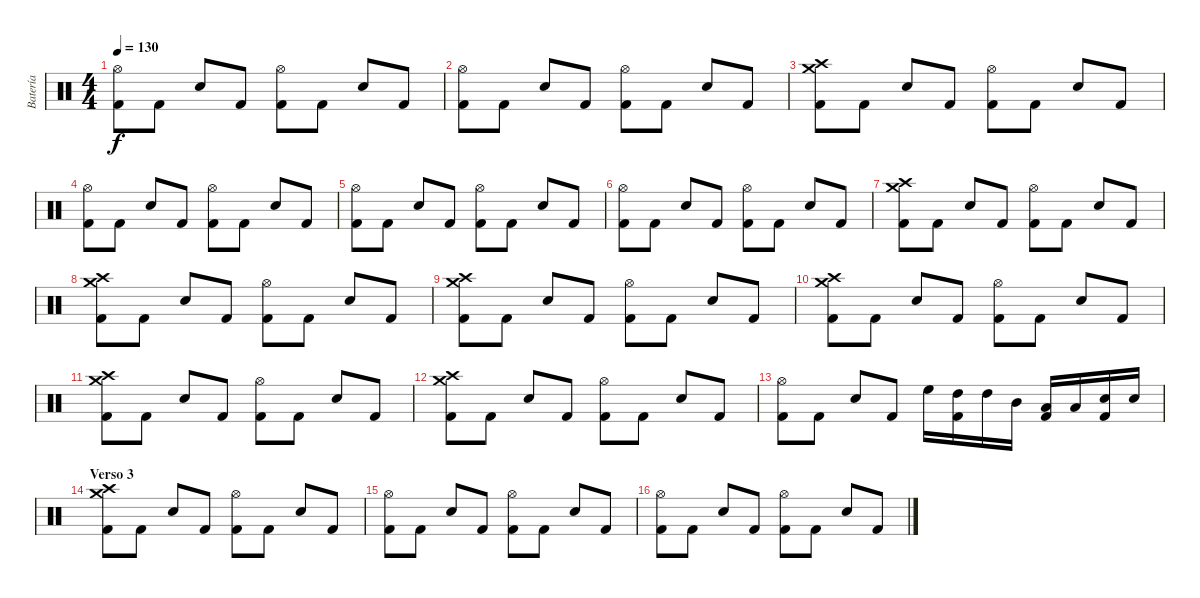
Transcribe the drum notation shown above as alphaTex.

\track ("Batería" "Batería") {instrument percussion}
\staff {score}
\articulation defaults
\ts (4 4)
\tempo 130
\clef neutral
\ks c
("Hi-Hat (open)" "Kick (hit) 2").8{dy f} "Kick (hit) 2".8 "Snare (hit) 2".8 "Kick (hit) 2".8 ("Hi-Hat (open)" "Kick (hit) 2").8 "Kick (hit) 2".8 "Snare (hit) 2".8 "Kick (hit) 2".8 |
("Hi-Hat (open)" "Kick (hit) 2").8 "Kick (hit) 2".8 "Snare (hit) 2".8 "Kick (hit) 2".8 ("Hi-Hat (open)" "Kick (hit) 2").8 "Kick (hit) 2".8 "Snare (hit) 2".8 "Kick (hit) 2".8 |
("Crash medium (hit)" "Crash high (hit)" "Kick (hit) 2").8 "Kick (hit) 2".8 "Snare (hit) 2".8 "Kick (hit) 2".8 ("Hi-Hat (open)" "Kick (hit) 2").8 "Kick (hit) 2".8 "Snare (hit) 2".8 "Kick (hit) 2".8 |
("Hi-Hat (open)" "Kick (hit) 2").8 "Kick (hit) 2".8 "Snare (hit) 2".8 "Kick (hit) 2".8 ("Hi-Hat (open)" "Kick (hit) 2").8 "Kick (hit) 2".8 "Snare (hit) 2".8 "Kick (hit) 2".8 |
("Hi-Hat (open)" "Kick (hit) 2").8 "Kick (hit) 2".8 "Snare (hit) 2".8 "Kick (hit) 2".8 ("Hi-Hat (open)" "Kick (hit) 2").8 "Kick (hit) 2".8 "Snare (hit) 2".8 "Kick (hit) 2".8 |
("Hi-Hat (open)" "Kick (hit) 2").8 "Kick (hit) 2".8 "Snare (hit) 2".8 "Kick (hit) 2".8 ("Hi-Hat (open)" "Kick (hit) 2").8 "Kick (hit) 2".8 "Snare (hit) 2".8 "Kick (hit) 2".8 |
("Crash medium (hit)" "Crash high (hit)" "Kick (hit) 2").8 "Kick (hit) 2".8 "Snare (hit) 2".8 "Kick (hit) 2".8 ("Hi-Hat (open)" "Kick (hit) 2").8 "Kick (hit) 2".8 "Snare (hit) 2".8 "Kick (hit) 2".8 |
("Crash medium (hit)" "Crash high (hit)" "Kick (hit) 2").8 "Kick (hit) 2".8 "Snare (hit) 2".8 "Kick (hit) 2".8 ("Hi-Hat (open)" "Kick (hit) 2").8 "Kick (hit) 2".8 "Snare (hit) 2".8 "Kick (hit) 2".8 |
("Crash medium (hit)" "Crash high (hit)" "Kick (hit) 2").8 "Kick (hit) 2".8 "Snare (hit) 2".8 "Kick (hit) 2".8 ("Hi-Hat (open)" "Kick (hit) 2").8 "Kick (hit) 2".8 "Snare (hit) 2".8 "Kick (hit) 2".8 |
("Crash medium (hit)" "Crash high (hit)" "Kick (hit) 2").8 "Kick (hit) 2".8 "Snare (hit) 2".8 "Kick (hit) 2".8 ("Hi-Hat (open)" "Kick (hit) 2").8 "Kick (hit) 2".8 "Snare (hit) 2".8 "Kick (hit) 2".8 |
("Crash medium (hit)" "Crash high (hit)" "Kick (hit) 2").8 "Kick (hit) 2".8 "Snare (hit) 2".8 "Kick (hit) 2".8 ("Hi-Hat (open)" "Kick (hit) 2").8 "Kick (hit) 2".8 "Snare (hit) 2".8 "Kick (hit) 2".8 |
("Crash medium (hit)" "Crash high (hit)" "Kick (hit) 2").8 "Kick (hit) 2".8 "Snare (hit) 2".8 "Kick (hit) 2".8 ("Hi-Hat (open)" "Kick (hit) 2").8 "Kick (hit) 2".8 "Snare (hit) 2".8 "Kick (hit) 2".8 |
("Hi-Hat (open)" "Kick (hit) 2").8 "Kick (hit) 2".8 "Snare (hit) 2".8 "Kick (hit) 2".8 "High Floor Tom (hit)".16 ("High Tom (hit)" "Kick (hit) 2").16 "High Tom (hit)".16 "Mid Tom (hit)".16 ("Low Tom (hit)" "Kick (hit) 2").16 "Low Tom (hit)".16 ("Snare (hit) 2" "Kick (hit) 2").16 "Snare (hit) 2".16 |
\section ("" "Verso 3")
("Crash medium (hit)" "Crash high (hit)" "Kick (hit) 2").8 "Kick (hit) 2".8 "Snare (hit) 2".8 "Kick (hit) 2".8 ("Hi-Hat (open)" "Kick (hit) 2").8 "Kick (hit) 2".8 "Snare (hit) 2".8 "Kick (hit) 2".8 |
("Hi-Hat (open)" "Kick (hit) 2").8 "Kick (hit) 2".8 "Snare (hit) 2".8 "Kick (hit) 2".8 ("Hi-Hat (open)" "Kick (hit) 2").8 "Kick (hit) 2".8 "Snare (hit) 2".8 "Kick (hit) 2".8 |
("Hi-Hat (open)" "Kick (hit) 2").8 "Kick (hit) 2".8 "Snare (hit) 2".8 "Kick (hit) 2".8 ("Hi-Hat (open)" "Kick (hit) 2").8 "Kick (hit) 2".8 "Snare (hit) 2".8 "Kick (hit) 2".8
